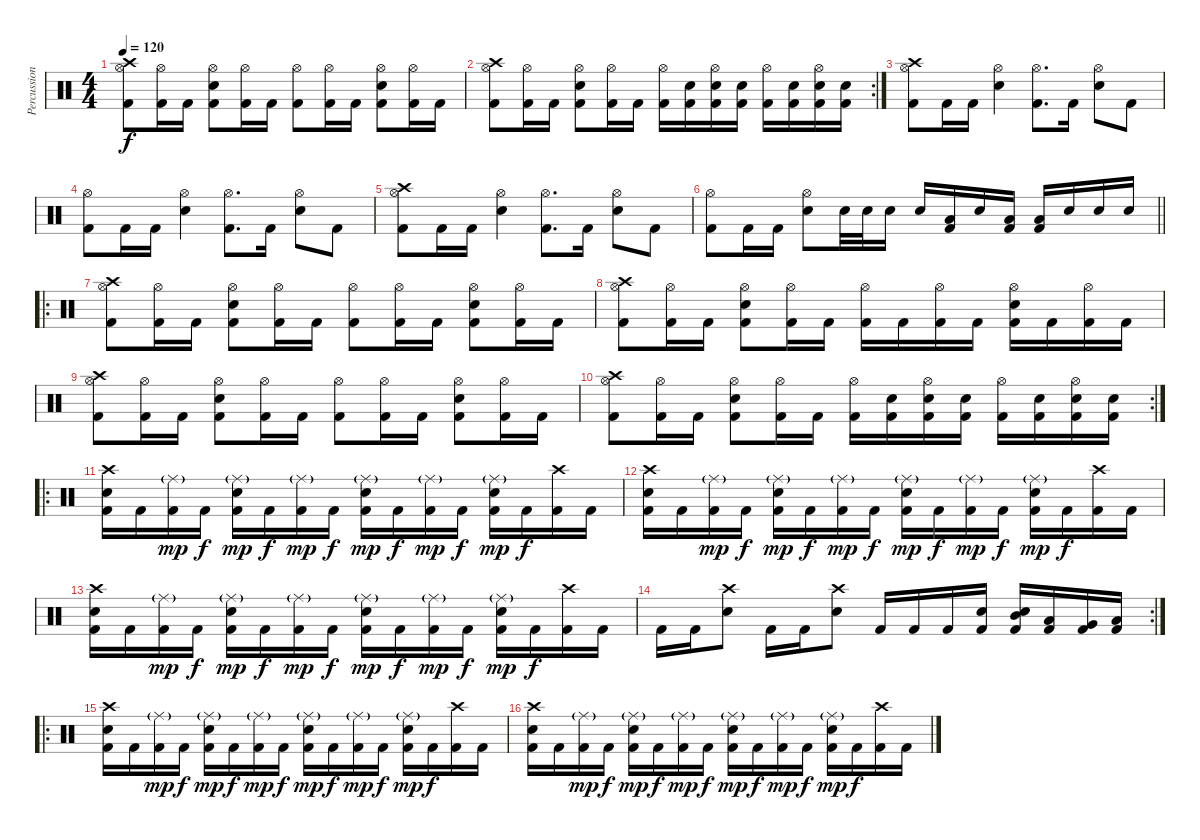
\track ("Percussion" "Percussion") {instrument percussion}
\staff {score}
\articulation defaults
\ts (4 4)
\tempo 120
\clef neutral
\ks c
("Hi-Hat (open)" "Kick (hit) 2" "Crash high (hit)").8{dy f} ("Hi-Hat (open)" "Kick (hit) 2").16 "Kick (hit) 2".16 ("Hi-Hat (open)" "Snare (hit) 2" "Kick (hit) 2").8 ("Hi-Hat (open)" "Kick (hit) 2").16 "Kick (hit) 2".16 ("Hi-Hat (open)" "Kick (hit) 2").8 ("Hi-Hat (open)" "Kick (hit) 2").16 "Kick (hit) 2".16 ("Hi-Hat (open)" "Snare (hit) 2" "Kick (hit) 2").8 ("Hi-Hat (open)" "Kick (hit) 2").16 "Kick (hit) 2".16 |
\rc 2
("Hi-Hat (open)" "Kick (hit) 2" "Crash high (hit)").8 ("Hi-Hat (open)" "Kick (hit) 2").16 "Kick (hit) 2".16 ("Hi-Hat (open)" "Snare (hit) 2" "Kick (hit) 2").8 ("Hi-Hat (open)" "Kick (hit) 2").16 "Kick (hit) 2".16 ("Hi-Hat (open)" "Kick (hit) 2").16 ("Snare (hit) 2" "Kick (hit) 2").16 ("Hi-Hat (open)" "Snare (hit) 2" "Kick (hit) 2").16 ("Snare (hit) 2" "Kick (hit) 2").16 ("Hi-Hat (open)" "Kick (hit) 2").16 ("Snare (hit) 2" "Kick (hit) 2").16 ("Hi-Hat (open)" "Snare (hit) 2" "Kick (hit) 2").16 ("Snare (hit) 2" "Kick (hit) 2").16 |
("Hi-Hat (open)" "Kick (hit) 2" "Crash high (hit)").8 "Kick (hit) 2".16 "Kick (hit) 2".16 ("Hi-Hat (open)" "Snare (hit) 2").4 ("Hi-Hat (open)" "Kick (hit) 2").8{d} "Kick (hit) 2".16 ("Hi-Hat (open)" "Snare (hit) 2").8 "Kick (hit) 2".8 |
("Hi-Hat (open)" "Kick (hit) 2").8 "Kick (hit) 2".16 "Kick (hit) 2".16 ("Hi-Hat (open)" "Snare (hit) 2").4 ("Hi-Hat (open)" "Kick (hit) 2").8{d} "Kick (hit) 2".16 ("Hi-Hat (open)" "Snare (hit) 2").8 "Kick (hit) 2".8 |
("Hi-Hat (open)" "Kick (hit) 2" "Crash high (hit)").8 "Kick (hit) 2".16 "Kick (hit) 2".16 ("Hi-Hat (open)" "Snare (hit) 2").4 ("Hi-Hat (open)" "Kick (hit) 2").8{d} "Kick (hit) 2".16 ("Hi-Hat (open)" "Snare (hit) 2").8 "Kick (hit) 2".8 |
\barLineRight lightlight
("Hi-Hat (open)" "Kick (hit) 2").8 "Kick (hit) 2".16 "Kick (hit) 2".16 ("Hi-Hat (open)" "Snare (hit) 2").8 "Snare (hit) 2".32 "Snare (hit) 2".32 "Snare (hit) 2".16 "Snare (hit) 2".16 ("Low Floor Tom (hit)" "Kick (hit) 2").16 "Snare (hit) 2".16 ("Low Floor Tom (hit)" "Kick (hit) 2").16 ("Low Floor Tom (hit)" "Kick (hit) 2").16 "Snare (hit) 2".16 "Snare (hit) 2".16 "Snare (hit) 2".16 |
\ro
("Hi-Hat (open)" "Kick (hit) 2" "Crash high (hit)").8 ("Hi-Hat (open)" "Kick (hit) 2").16 "Kick (hit) 2".16 ("Hi-Hat (open)" "Snare (hit) 2" "Kick (hit) 2").8 ("Hi-Hat (open)" "Kick (hit) 2").16 "Kick (hit) 2".16 ("Hi-Hat (open)" "Kick (hit) 2").8 ("Hi-Hat (open)" "Kick (hit) 2").16 "Kick (hit) 2".16 ("Hi-Hat (open)" "Snare (hit) 2" "Kick (hit) 2").8 ("Hi-Hat (open)" "Kick (hit) 2").16 "Kick (hit) 2".16 |
("Hi-Hat (open)" "Kick (hit) 2" "Crash high (hit)").8 ("Hi-Hat (open)" "Kick (hit) 2").16 "Kick (hit) 2".16 ("Hi-Hat (open)" "Snare (hit) 2" "Kick (hit) 2").8 ("Hi-Hat (open)" "Kick (hit) 2").16 "Kick (hit) 2".16 ("Hi-Hat (open)" "Kick (hit) 2").16 "Kick (hit) 2".16 ("Hi-Hat (open)" "Kick (hit) 2").16 "Kick (hit) 2".16 ("Hi-Hat (open)" "Snare (hit) 2" "Kick (hit) 2").16 "Kick (hit) 2".16 ("Hi-Hat (open)" "Kick (hit) 2").16 "Kick (hit) 2".16 |
("Hi-Hat (open)" "Kick (hit) 2" "Crash high (hit)").8 ("Hi-Hat (open)" "Kick (hit) 2").16 "Kick (hit) 2".16 ("Hi-Hat (open)" "Snare (hit) 2" "Kick (hit) 2").8 ("Hi-Hat (open)" "Kick (hit) 2").16 "Kick (hit) 2".16 ("Hi-Hat (open)" "Kick (hit) 2").8 ("Hi-Hat (open)" "Kick (hit) 2").16 "Kick (hit) 2".16 ("Hi-Hat (open)" "Snare (hit) 2" "Kick (hit) 2").8 ("Hi-Hat (open)" "Kick (hit) 2").16 "Kick (hit) 2".16 |
\rc 2
("Hi-Hat (open)" "Kick (hit) 2" "Crash high (hit)").8 ("Hi-Hat (open)" "Kick (hit) 2").16 "Kick (hit) 2".16 ("Hi-Hat (open)" "Snare (hit) 2" "Kick (hit) 2").8 ("Hi-Hat (open)" "Kick (hit) 2").16 "Kick (hit) 2".16 ("Hi-Hat (open)" "Kick (hit) 2").16 ("Snare (hit) 2" "Kick (hit) 2").16 ("Hi-Hat (open)" "Snare (hit) 2" "Kick (hit) 2").16 ("Snare (hit) 2" "Kick (hit) 2").16 ("Hi-Hat (open)" "Kick (hit) 2").16 ("Snare (hit) 2" "Kick (hit) 2").16 ("Hi-Hat (open)" "Snare (hit) 2" "Kick (hit) 2").16 ("Snare (hit) 2" "Kick (hit) 2").16 |
\ro
("Snare (hit) 2" "Kick (hit) 2" "Crash high (hit)").16 "Kick (hit) 2".16 ("Ride (middle)"{g} "Kick (hit) 2").16{dy mp} "Kick (hit) 2".16{dy f} ("Ride (middle)"{g} "Snare (hit) 2" "Kick (hit) 2").16{dy mp} "Kick (hit) 2".16{dy f} ("Ride (middle)"{g} "Kick (hit) 2").16{dy mp} "Kick (hit) 2".16{dy f} ("Ride (middle)"{g} "Snare (hit) 2" "Kick (hit) 2").16{dy mp} "Kick (hit) 2".16{dy f} ("Ride (middle)"{g} "Kick (hit) 2").16{dy mp} "Kick (hit) 2".16{dy f} ("Ride (middle)"{g} "Snare (hit) 2" "Kick (hit) 2").16{dy mp} "Kick (hit) 2".16{dy f} ("Kick (hit) 2" "Crash high (hit)").16 "Kick (hit) 2".16 |
("Snare (hit) 2" "Kick (hit) 2" "Crash high (hit)").16 "Kick (hit) 2".16 ("Ride (middle)"{g} "Kick (hit) 2").16{dy mp} "Kick (hit) 2".16{dy f} ("Ride (middle)"{g} "Snare (hit) 2" "Kick (hit) 2").16{dy mp} "Kick (hit) 2".16{dy f} ("Ride (middle)"{g} "Kick (hit) 2").16{dy mp} "Kick (hit) 2".16{dy f} ("Ride (middle)"{g} "Snare (hit) 2" "Kick (hit) 2").16{dy mp} "Kick (hit) 2".16{dy f} ("Ride (middle)"{g} "Kick (hit) 2").16{dy mp} "Kick (hit) 2".16{dy f} ("Ride (middle)"{g} "Snare (hit) 2" "Kick (hit) 2").16{dy mp} "Kick (hit) 2".16{dy f} ("Kick (hit) 2" "Crash high (hit)").16 "Kick (hit) 2".16 |
("Snare (hit) 2" "Kick (hit) 2" "Crash high (hit)").16 "Kick (hit) 2".16 ("Ride (middle)"{g} "Kick (hit) 2").16{dy mp} "Kick (hit) 2".16{dy f} ("Ride (middle)"{g} "Snare (hit) 2" "Kick (hit) 2").16{dy mp} "Kick (hit) 2".16{dy f} ("Ride (middle)"{g} "Kick (hit) 2").16{dy mp} "Kick (hit) 2".16{dy f} ("Ride (middle)"{g} "Snare (hit) 2" "Kick (hit) 2").16{dy mp} "Kick (hit) 2".16{dy f} ("Ride (middle)"{g} "Kick (hit) 2").16{dy mp} "Kick (hit) 2".16{dy f} ("Ride (middle)"{g} "Snare (hit) 2" "Kick (hit) 2").16{dy mp} "Kick (hit) 2".16{dy f} ("Kick (hit) 2" "Crash high (hit)").16 "Kick (hit) 2".16 |
\rc 2 "Kick (hit) 2".16 "Kick (hit) 2".16
("Snare (hit) 2" "Crash high (hit)").8 "Kick (hit) 2".16 "Kick (hit) 2".16 ("Snare (hit) 2" "Crash high (hit)").8 "Kick (hit) 2".16 "Kick (hit) 2".16 "Kick (hit) 2".16 ("Snare (hit) 2" "Kick (hit) 2").16 ("Mid Tom (hit)" "Snare (hit) 2" "Kick (hit) 2").16 ("Low Tom (hit)" "Kick (hit) 2").16 ("Very Low Tom (hit)" "Kick (hit) 2").16 ("Low Floor Tom (hit)" "Kick (hit) 2").16 |
\ro
("Snare (hit) 2" "Kick (hit) 2" "Crash high (hit)").16 "Kick (hit) 2".16 ("Ride (middle)"{g} "Kick (hit) 2").16{dy mp} "Kick (hit) 2".16{dy f} ("Ride (middle)"{g} "Snare (hit) 2" "Kick (hit) 2").16{dy mp} "Kick (hit) 2".16{dy f} ("Ride (middle)"{g} "Kick (hit) 2").16{dy mp} "Kick (hit) 2".16{dy f} ("Ride (middle)"{g} "Snare (hit) 2" "Kick (hit) 2").16{dy mp} "Kick (hit) 2".16{dy f} ("Ride (middle)"{g} "Kick (hit) 2").16{dy mp} "Kick (hit) 2".16{dy f} ("Ride (middle)"{g} "Snare (hit) 2" "Kick (hit) 2").16{dy mp} "Kick (hit) 2".16{dy f} ("Kick (hit) 2" "Crash high (hit)").16 "Kick (hit) 2".16 |
("Snare (hit) 2" "Kick (hit) 2" "Crash high (hit)").16 "Kick (hit) 2".16 ("Ride (middle)"{g} "Kick (hit) 2").16{dy mp} "Kick (hit) 2".16{dy f} ("Ride (middle)"{g} "Snare (hit) 2" "Kick (hit) 2").16{dy mp} "Kick (hit) 2".16{dy f} ("Ride (middle)"{g} "Kick (hit) 2").16{dy mp} "Kick (hit) 2".16{dy f} ("Ride (middle)"{g} "Snare (hit) 2" "Kick (hit) 2").16{dy mp} "Kick (hit) 2".16{dy f} ("Ride (middle)"{g} "Kick (hit) 2").16{dy mp} "Kick (hit) 2".16{dy f} ("Ride (middle)"{g} "Snare (hit) 2" "Kick (hit) 2").16{dy mp} "Kick (hit) 2".16{dy f} ("Kick (hit) 2" "Crash high (hit)").16 "Kick (hit) 2".16
